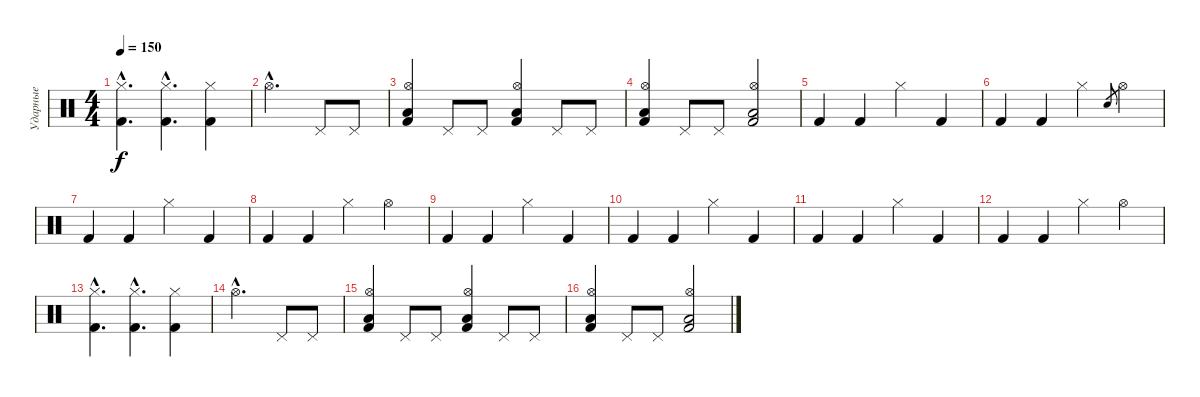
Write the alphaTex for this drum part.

\track ("Ударные" "Ударные") {instrument percussion}
\staff {score}
\articulation defaults
\ts (4 4)
\tempo 150
\clef neutral
\ks c
("Hi-Hat (closed)"{hac} "Kick (hit) 2"{hac}).4{d dy f} ("Kick (hit) 2"{hac} "Hi-Hat (closed)"{hac}).4{d} ("Hi-Hat (closed)" "Kick (hit) 2").4 |
"Hi-Hat (open)"{hac}.2{d} "Pedal Hi-Hat (hit)".8 "Pedal Hi-Hat (hit)".8 |
("Low Floor Tom (hit)" "Kick (hit) 2" "Hi-Hat (open)").4 "Pedal Hi-Hat (hit)".8 "Pedal Hi-Hat (hit)".8 ("Low Floor Tom (hit)" "Hi-Hat (open)" "Kick (hit) 2").4 "Pedal Hi-Hat (hit)".8 "Pedal Hi-Hat (hit)".8 |
("Low Floor Tom (hit)" "Kick (hit) 2" "Hi-Hat (open)").4 "Pedal Hi-Hat (hit)".8 "Pedal Hi-Hat (hit)".8 ("Low Floor Tom (hit)" "Kick (hit) 2" "Hi-Hat (open)").2 |
"Kick (hit) 2".4 "Kick (hit) 2".4 "Hi-Hat (closed)".4 "Kick (hit) 2".4 |
"Kick (hit) 2".4 "Kick (hit) 2".4 "Hi-Hat (closed)".4 "Metronome (bell)".8{gr} "Hi-Hat (open)".4 |
"Kick (hit) 2".4 "Kick (hit) 2".4 "Hi-Hat (closed)".4 "Kick (hit) 2".4 |
"Kick (hit) 2".4 "Kick (hit) 2".4 "Hi-Hat (closed)".4 "Hi-Hat (open)".4 |
"Kick (hit) 2".4 "Kick (hit) 2".4 "Hi-Hat (closed)".4 "Kick (hit) 2".4 |
"Kick (hit) 2".4 "Kick (hit) 2".4 "Hi-Hat (closed)".4 "Kick (hit) 2".4 |
"Kick (hit) 2".4 "Kick (hit) 2".4 "Hi-Hat (closed)".4 "Kick (hit) 2".4 |
"Kick (hit) 2".4 "Kick (hit) 2".4 "Hi-Hat (closed)".4 "Hi-Hat (open)".4 |
("Hi-Hat (closed)"{hac} "Kick (hit) 2"{hac}).4{d} ("Kick (hit) 2"{hac} "Hi-Hat (closed)"{hac}).4{d} ("Hi-Hat (closed)" "Kick (hit) 2").4 |
"Hi-Hat (open)"{hac}.2{d} "Pedal Hi-Hat (hit)".8 "Pedal Hi-Hat (hit)".8 |
("Low Floor Tom (hit)" "Kick (hit) 2" "Hi-Hat (open)").4 "Pedal Hi-Hat (hit)".8 "Pedal Hi-Hat (hit)".8 ("Low Floor Tom (hit)" "Hi-Hat (open)" "Kick (hit) 2").4 "Pedal Hi-Hat (hit)".8 "Pedal Hi-Hat (hit)".8 |
("Low Floor Tom (hit)" "Kick (hit) 2" "Hi-Hat (open)").4 "Pedal Hi-Hat (hit)".8 "Pedal Hi-Hat (hit)".8 ("Low Floor Tom (hit)" "Kick (hit) 2" "Hi-Hat (open)").2
